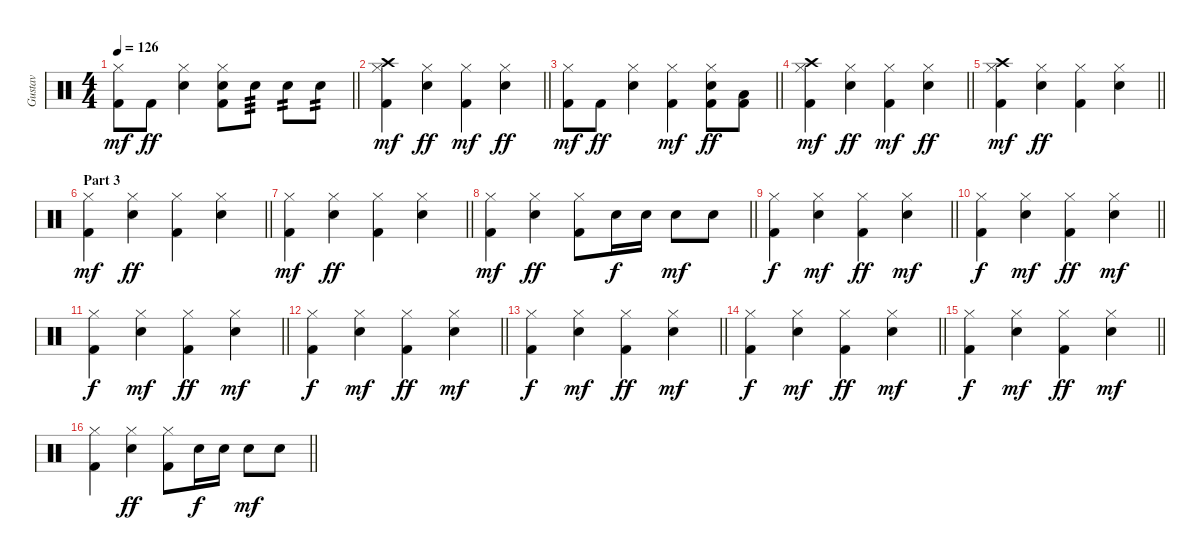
\track ("Gustav" "Gustav") {instrument percussion}
\staff {score}
\articulation defaults
\ts (4 4)
\tempo 126
\clef neutral
\barLineRight lightlight
\ks c
("Hi-Hat (closed)" "Kick (hit) 2").8{dy mf} "Kick (hit) 2".8{dy ff} ("Hi-Hat (closed)" "Snare (hit) 2").4 ("Hi-Hat (closed)" "Snare (hit) 2" "Kick (hit) 2").8 "Snare (hit) 2".8{tp 3} "Snare (hit) 2".8{tp 2} "Snare (hit) 2".8{tp 2} |
\barLineRight lightlight
("Crash high (hit)" "Hi-Hat (closed)" "Kick (hit) 2").4{dy mf} ("Hi-Hat (closed)" "Snare (hit) 2").4{dy ff} ("Hi-Hat (closed)" "Kick (hit) 2").4{dy mf} ("Hi-Hat (closed)" "Snare (hit) 2").4{dy ff} |
\barLineRight lightlight
("Hi-Hat (closed)" "Kick (hit) 2").8{dy mf} "Kick (hit) 2".8{dy ff} ("Hi-Hat (closed)" "Snare (hit) 2").4 ("Hi-Hat (closed)" "Kick (hit) 2").4{dy mf} ("Hi-Hat (closed)" "Snare (hit) 2" "Kick (hit) 2").8{dy ff} ("Low Tom (hit)" "Kick (hit) 2").8 |
\barLineRight lightlight
("Crash high (hit)" "Hi-Hat (closed)" "Kick (hit) 2").4{dy mf} ("Hi-Hat (closed)" "Snare (hit) 2").4{dy ff} ("Hi-Hat (closed)" "Kick (hit) 2").4{dy mf} ("Hi-Hat (closed)" "Snare (hit) 2").4{dy ff} |
\barLineRight lightlight
("Crash high (hit)" "Hi-Hat (closed)" "Kick (hit) 2").4{dy mf} ("Hi-Hat (closed)" "Snare (hit) 2").4{dy ff} ("Hi-Hat (closed)" "Kick (hit) 2").4 ("Hi-Hat (closed)" "Snare (hit) 2").4 |
\section ("" "Part 3")
\barLineRight lightlight
("Hi-Hat (closed)" "Kick (hit) 2").4{dy mf} ("Hi-Hat (closed)" "Snare (hit) 2").4{dy ff} ("Hi-Hat (closed)" "Kick (hit) 2").4 ("Hi-Hat (closed)" "Snare (hit) 2").4 |
\barLineRight lightlight
("Hi-Hat (closed)" "Kick (hit) 2").4{dy mf} ("Hi-Hat (closed)" "Snare (hit) 2").4{dy ff} ("Hi-Hat (closed)" "Kick (hit) 2").4 ("Hi-Hat (closed)" "Snare (hit) 2").4 |
\barLineRight lightlight
("Hi-Hat (closed)" "Kick (hit) 2").4{dy mf} ("Hi-Hat (closed)" "Snare (hit) 2").4{dy ff} ("Hi-Hat (closed)" "Kick (hit) 2").8 "Snare (hit) 2".16{dy f} "Snare (hit) 2".16 "Snare (hit) 2".8{dy mf} "Snare (hit) 2".8 |
\barLineRight lightlight
("Hi-Hat (closed)" "Kick (hit) 2").4{dy f} ("Hi-Hat (closed)" "Snare (hit) 2").4{dy mf} ("Hi-Hat (closed)" "Kick (hit) 2").4{dy ff} ("Hi-Hat (closed)" "Snare (hit) 2").4{dy mf} |
\barLineRight lightlight
("Hi-Hat (closed)" "Kick (hit) 2").4{dy f} ("Hi-Hat (closed)" "Snare (hit) 2").4{dy mf} ("Hi-Hat (closed)" "Kick (hit) 2").4{dy ff} ("Hi-Hat (closed)" "Snare (hit) 2").4{dy mf} |
\barLineRight lightlight
("Hi-Hat (closed)" "Kick (hit) 2").4{dy f} ("Hi-Hat (closed)" "Snare (hit) 2").4{dy mf} ("Hi-Hat (closed)" "Kick (hit) 2").4{dy ff} ("Hi-Hat (closed)" "Snare (hit) 2").4{dy mf} |
\barLineRight lightlight
("Hi-Hat (closed)" "Kick (hit) 2").4{dy f} ("Hi-Hat (closed)" "Snare (hit) 2").4{dy mf} ("Hi-Hat (closed)" "Kick (hit) 2").4{dy ff} ("Hi-Hat (closed)" "Snare (hit) 2").4{dy mf} |
\barLineRight lightlight
("Hi-Hat (closed)" "Kick (hit) 2").4{dy f} ("Hi-Hat (closed)" "Snare (hit) 2").4{dy mf} ("Hi-Hat (closed)" "Kick (hit) 2").4{dy ff} ("Hi-Hat (closed)" "Snare (hit) 2").4{dy mf} |
\barLineRight lightlight
("Hi-Hat (closed)" "Kick (hit) 2").4{dy f} ("Hi-Hat (closed)" "Snare (hit) 2").4{dy mf} ("Hi-Hat (closed)" "Kick (hit) 2").4{dy ff} ("Hi-Hat (closed)" "Snare (hit) 2").4{dy mf} |
\barLineRight lightlight
("Hi-Hat (closed)" "Kick (hit) 2").4{dy f} ("Hi-Hat (closed)" "Snare (hit) 2").4{dy mf} ("Hi-Hat (closed)" "Kick (hit) 2").4{dy ff} ("Hi-Hat (closed)" "Snare (hit) 2").4{dy mf} |
\barLineRight lightlight
("Hi-Hat (closed)" "Kick (hit) 2").4 ("Hi-Hat (closed)" "Snare (hit) 2").4{dy ff} ("Hi-Hat (closed)" "Kick (hit) 2").8 "Snare (hit) 2".16{dy f} "Snare (hit) 2".16 "Snare (hit) 2".8{dy mf} "Snare (hit) 2".8
